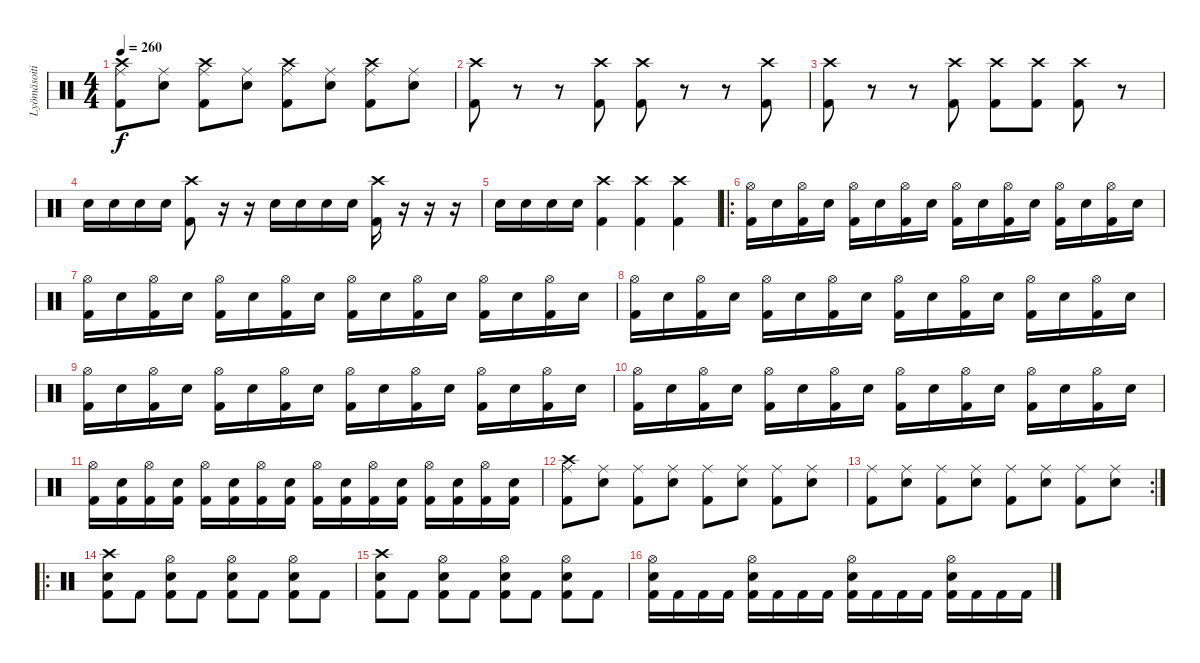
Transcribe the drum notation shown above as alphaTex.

\track ("Lyömäsoitin" "Lyömäsoiti") {instrument percussion}
\staff {score}
\articulation defaults
\ts (4 4)
\tempo 260
\clef neutral
\ks c
("Crash high (hit)" "Ride (middle)" "Kick (hit) 2").8{dy f} ("Ride (middle)" "Electric Snare (hit)").8 ("Crash high (hit)" "Ride (middle)" "Kick (hit) 2").8 ("Ride (middle)" "Electric Snare (hit)").8 ("Crash high (hit)" "Ride (middle)" "Kick (hit) 2").8 ("Ride (middle)" "Electric Snare (hit)").8 ("Crash high (hit)" "Ride (middle)" "Kick (hit) 2").8 ("Ride (middle)" "Electric Snare (hit)").8 |
("Kick (hit) 2" "Crash high (hit)").8 r.8 r.8 ("Kick (hit) 2" "Crash high (hit)").8 ("Kick (hit) 2" "Crash high (hit)").8 r.8 r.8 ("Kick (hit) 2" "Crash high (hit)").8 |
("Kick (hit) 2" "Crash high (hit)").8 r.8 r.8 ("Kick (hit) 2" "Crash high (hit)").8 ("Kick (hit) 2" "Crash high (hit)").8 ("Kick (hit) 2" "Crash high (hit)").8 ("Kick (hit) 2" "Crash high (hit)").8 r.8 |
"Electric Snare (hit)".16 "Electric Snare (hit)".16 "Electric Snare (hit)".16 "Electric Snare (hit)".16 ("Crash high (hit)" "Kick (hit) 2").8 r.16 r.16 "Electric Snare (hit)".16 "Electric Snare (hit)".16 "Electric Snare (hit)".16 "Electric Snare (hit)".16 ("Crash high (hit)" "Kick (hit) 2").16 r.16 r.16 r.16 |
"Electric Snare (hit)".16 "Electric Snare (hit)".16 "Electric Snare (hit)".16 "Electric Snare (hit)".16 ("Crash high (hit)" "Kick (hit) 2").4 ("Crash high (hit)" "Kick (hit) 2").4 ("Crash high (hit)" "Kick (hit) 2").4 |
\ro
("Hi-Hat (open)" "Kick (hit) 2").16 "Electric Snare (hit)".16 ("Hi-Hat (open)" "Kick (hit) 2").16 "Electric Snare (hit)".16 ("Hi-Hat (open)" "Kick (hit) 2").16 "Electric Snare (hit)".16 ("Hi-Hat (open)" "Kick (hit) 2").16 "Electric Snare (hit)".16 ("Hi-Hat (open)" "Kick (hit) 2").16 "Electric Snare (hit)".16 ("Hi-Hat (open)" "Kick (hit) 2").16 "Electric Snare (hit)".16 ("Hi-Hat (open)" "Kick (hit) 2").16 "Electric Snare (hit)".16 ("Hi-Hat (open)" "Kick (hit) 2").16 "Electric Snare (hit)".16 |
("Hi-Hat (open)" "Kick (hit) 2").16 "Electric Snare (hit)".16 ("Hi-Hat (open)" "Kick (hit) 2").16 "Electric Snare (hit)".16 ("Hi-Hat (open)" "Kick (hit) 2").16 "Electric Snare (hit)".16 ("Hi-Hat (open)" "Kick (hit) 2").16 "Electric Snare (hit)".16 ("Hi-Hat (open)" "Kick (hit) 2").16 "Electric Snare (hit)".16 ("Hi-Hat (open)" "Kick (hit) 2").16 "Electric Snare (hit)".16 ("Hi-Hat (open)" "Kick (hit) 2").16 "Electric Snare (hit)".16 ("Hi-Hat (open)" "Kick (hit) 2").16 "Electric Snare (hit)".16 |
("Hi-Hat (open)" "Kick (hit) 2").16 "Electric Snare (hit)".16 ("Hi-Hat (open)" "Kick (hit) 2").16 "Electric Snare (hit)".16 ("Hi-Hat (open)" "Kick (hit) 2").16 "Electric Snare (hit)".16 ("Hi-Hat (open)" "Kick (hit) 2").16 "Electric Snare (hit)".16 ("Hi-Hat (open)" "Kick (hit) 2").16 "Electric Snare (hit)".16 ("Hi-Hat (open)" "Kick (hit) 2").16 "Electric Snare (hit)".16 ("Hi-Hat (open)" "Kick (hit) 2").16 "Electric Snare (hit)".16 ("Hi-Hat (open)" "Kick (hit) 2").16 "Electric Snare (hit)".16 |
("Hi-Hat (open)" "Kick (hit) 2").16 "Electric Snare (hit)".16 ("Hi-Hat (open)" "Kick (hit) 2").16 "Electric Snare (hit)".16 ("Hi-Hat (open)" "Kick (hit) 2").16 "Electric Snare (hit)".16 ("Hi-Hat (open)" "Kick (hit) 2").16 "Electric Snare (hit)".16 ("Hi-Hat (open)" "Kick (hit) 2").16 "Electric Snare (hit)".16 ("Hi-Hat (open)" "Kick (hit) 2").16 "Electric Snare (hit)".16 ("Hi-Hat (open)" "Kick (hit) 2").16 "Electric Snare (hit)".16 ("Hi-Hat (open)" "Kick (hit) 2").16 "Electric Snare (hit)".16 |
("Hi-Hat (open)" "Kick (hit) 2").16 "Electric Snare (hit)".16 ("Hi-Hat (open)" "Kick (hit) 2").16 "Electric Snare (hit)".16 ("Hi-Hat (open)" "Kick (hit) 2").16 "Electric Snare (hit)".16 ("Hi-Hat (open)" "Kick (hit) 2").16 "Electric Snare (hit)".16 ("Hi-Hat (open)" "Kick (hit) 2").16 "Electric Snare (hit)".16 ("Hi-Hat (open)" "Kick (hit) 2").16 "Electric Snare (hit)".16 ("Hi-Hat (open)" "Kick (hit) 2").16 "Electric Snare (hit)".16 ("Hi-Hat (open)" "Kick (hit) 2").16 "Electric Snare (hit)".16 |
("Hi-Hat (open)" "Kick (hit) 2").16 ("Kick (hit) 2" "Electric Snare (hit)").16 ("Hi-Hat (open)" "Kick (hit) 2").16 ("Kick (hit) 2" "Electric Snare (hit)").16 ("Hi-Hat (open)" "Kick (hit) 2").16 ("Kick (hit) 2" "Electric Snare (hit)").16 ("Hi-Hat (open)" "Kick (hit) 2").16 ("Kick (hit) 2" "Electric Snare (hit)").16 ("Hi-Hat (open)" "Kick (hit) 2").16 ("Kick (hit) 2" "Electric Snare (hit)").16 ("Hi-Hat (open)" "Kick (hit) 2").16 ("Kick (hit) 2" "Electric Snare (hit)").16 ("Hi-Hat (open)" "Kick (hit) 2").16 ("Kick (hit) 2" "Electric Snare (hit)").16 ("Hi-Hat (open)" "Kick (hit) 2").16 ("Kick (hit) 2" "Electric Snare (hit)").16 |
("Crash high (hit)" "Ride (middle)" "Kick (hit) 2").8 ("Ride (middle)" "Electric Snare (hit)").8 ("Ride (middle)" "Kick (hit) 2").8 ("Ride (middle)" "Electric Snare (hit)").8 ("Ride (middle)" "Kick (hit) 2").8 ("Ride (middle)" "Electric Snare (hit)").8 ("Ride (middle)" "Kick (hit) 2").8 ("Ride (middle)" "Electric Snare (hit)").8 |
\rc 2
("Ride (middle)" "Kick (hit) 2").8 ("Ride (middle)" "Electric Snare (hit)").8 ("Ride (middle)" "Kick (hit) 2").8 ("Ride (middle)" "Electric Snare (hit)").8 ("Ride (middle)" "Kick (hit) 2").8 ("Ride (middle)" "Electric Snare (hit)").8 ("Ride (middle)" "Kick (hit) 2").8 ("Ride (middle)" "Electric Snare (hit)").8 |
\ro
("Crash high (hit)" "Electric Snare (hit)" "Kick (hit) 2").8 "Kick (hit) 2".8 ("Hi-Hat (open)" "Electric Snare (hit)" "Kick (hit) 2").8 "Kick (hit) 2".8 ("Electric Snare (hit)" "Hi-Hat (open)" "Kick (hit) 2").8 "Kick (hit) 2".8 ("Hi-Hat (open)" "Electric Snare (hit)" "Kick (hit) 2").8 "Kick (hit) 2".8 |
("Crash high (hit)" "Electric Snare (hit)" "Kick (hit) 2").8 "Kick (hit) 2".8 ("Hi-Hat (open)" "Electric Snare (hit)" "Kick (hit) 2").8 "Kick (hit) 2".8 ("Electric Snare (hit)" "Hi-Hat (open)" "Kick (hit) 2").8 "Kick (hit) 2".8 ("Hi-Hat (open)" "Electric Snare (hit)" "Kick (hit) 2").8 "Kick (hit) 2".8 |
("Hi-Hat (open)" "Electric Snare (hit)" "Kick (hit) 2").16 "Kick (hit) 2".16 "Kick (hit) 2".16 "Kick (hit) 2".16 ("Hi-Hat (open)" "Electric Snare (hit)" "Kick (hit) 2").16 "Kick (hit) 2".16 "Kick (hit) 2".16 "Kick (hit) 2".16 ("Hi-Hat (open)" "Electric Snare (hit)" "Kick (hit) 2").16 "Kick (hit) 2".16 "Kick (hit) 2".16 "Kick (hit) 2".16 ("Hi-Hat (open)" "Electric Snare (hit)" "Kick (hit) 2").16 "Kick (hit) 2".16 "Kick (hit) 2".16 "Kick (hit) 2".16
